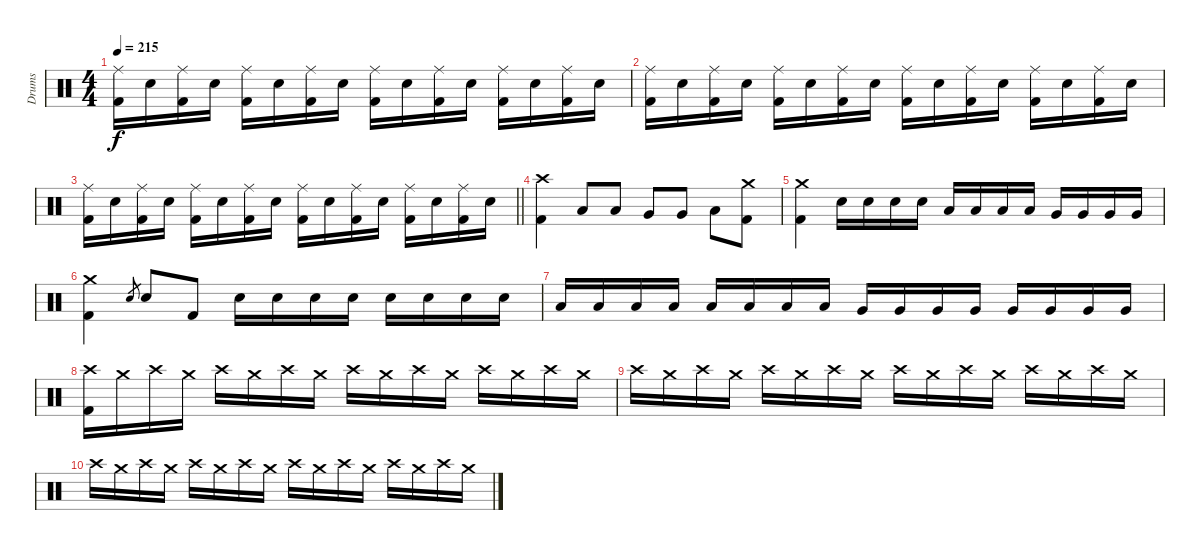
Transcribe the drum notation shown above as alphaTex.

\track ("Drums" "Drums") {instrument percussion}
\staff {score}
\articulation defaults
\ts (4 4)
\tempo 215
\clef neutral
\ks c
("Ride (middle)" "Kick (hit) 2").16{dy f} "Electric Snare (hit)".16 ("Ride (middle)" "Kick (hit) 2").16 "Electric Snare (hit)".16 ("Ride (middle)" "Kick (hit) 2").16 "Electric Snare (hit)".16 ("Ride (middle)" "Kick (hit) 2").16 "Electric Snare (hit)".16 ("Ride (middle)" "Kick (hit) 2").16 "Electric Snare (hit)".16 ("Ride (middle)" "Kick (hit) 2").16 "Electric Snare (hit)".16 ("Ride (middle)" "Kick (hit) 2").16 "Electric Snare (hit)".16 ("Ride (middle)" "Kick (hit) 2").16 "Electric Snare (hit)".16 |
("Ride (middle)" "Kick (hit) 2").16 "Electric Snare (hit)".16 ("Ride (middle)" "Kick (hit) 2").16 "Electric Snare (hit)".16 ("Ride (middle)" "Kick (hit) 2").16 "Electric Snare (hit)".16 ("Ride (middle)" "Kick (hit) 2").16 "Electric Snare (hit)".16 ("Ride (middle)" "Kick (hit) 2").16 "Electric Snare (hit)".16 ("Ride (middle)" "Kick (hit) 2").16 "Electric Snare (hit)".16 ("Ride (middle)" "Kick (hit) 2").16 "Electric Snare (hit)".16 ("Ride (middle)" "Kick (hit) 2").16 "Electric Snare (hit)".16 |
\barLineRight lightlight
("Ride (middle)" "Kick (hit) 2").16 "Electric Snare (hit)".16 ("Ride (middle)" "Kick (hit) 2").16 "Electric Snare (hit)".16 ("Ride (middle)" "Kick (hit) 2").16 "Electric Snare (hit)".16 ("Ride (middle)" "Kick (hit) 2").16 "Electric Snare (hit)".16 ("Ride (middle)" "Kick (hit) 2").16 "Electric Snare (hit)".16 ("Ride (middle)" "Kick (hit) 2").16 "Electric Snare (hit)".16 ("Ride (middle)" "Kick (hit) 2").16 "Electric Snare (hit)".16 ("Ride (middle)" "Kick (hit) 2").16 "Electric Snare (hit)".16 |
("Crash high (hit)" "Kick (hit) 2").4 "Low Tom (hit)".8 "Low Tom (hit)".8 "Very Low Tom (hit)".8 "Very Low Tom (hit)".8 "Low Floor Tom (hit)".8 ("Crash medium (hit)" "Kick (hit) 2").8 |
("Crash medium (hit)" "Kick (hit) 2").4 "Electric Snare (hit)".16 "Electric Snare (hit)".16 "Electric Snare (hit)".16 "Electric Snare (hit)".16 "Low Tom (hit)".16 "Low Tom (hit)".16 "Low Tom (hit)".16 "Low Tom (hit)".16 "Very Low Tom (hit)".16 "Very Low Tom (hit)".16 "Very Low Tom (hit)".16 "Very Low Tom (hit)".16 |
("Crash medium (hit)" "Kick (hit) 2").4 "Electric Snare (hit)".8{gr} "Electric Snare (hit)".8 "Kick (hit) 2".8 "Electric Snare (hit)".16 "Electric Snare (hit)".16 "Electric Snare (hit)".16 "Electric Snare (hit)".16 "Electric Snare (hit)".16 "Electric Snare (hit)".16 "Electric Snare (hit)".16 "Electric Snare (hit)".16 |
"Low Tom (hit)".16 "Low Tom (hit)".16 "Low Tom (hit)".16 "Low Tom (hit)".16 "Low Tom (hit)".16 "Low Tom (hit)".16 "Low Tom (hit)".16 "Low Tom (hit)".16 "Very Low Tom (hit)".16 "Very Low Tom (hit)".16 "Very Low Tom (hit)".16 "Very Low Tom (hit)".16 "Very Low Tom (hit)".16 "Very Low Tom (hit)".16 "Very Low Tom (hit)".16 "Very Low Tom (hit)".16 |
("Crash high (hit)" "Kick (hit) 2").16{volume 0} "Crash medium (hit)".16 "Crash high (hit)".16 "Crash medium (hit)".16 "Crash high (hit)".16 "Crash medium (hit)".16 "Crash high (hit)".16 "Crash medium (hit)".16 "Crash high (hit)".16 "Crash medium (hit)".16 "Crash high (hit)".16 "Crash medium (hit)".16 "Crash high (hit)".16 "Crash medium (hit)".16 "Crash high (hit)".16 "Crash medium (hit)".16 |
"Crash high (hit)".16 "Crash medium (hit)".16 "Crash high (hit)".16 "Crash medium (hit)".16 "Crash high (hit)".16 "Crash medium (hit)".16 "Crash high (hit)".16 "Crash medium (hit)".16 "Crash high (hit)".16 "Crash medium (hit)".16 "Crash high (hit)".16 "Crash medium (hit)".16 "Crash high (hit)".16 "Crash medium (hit)".16 "Crash high (hit)".16 "Crash medium (hit)".16 |
"Crash high (hit)".16 "Crash medium (hit)".16 "Crash high (hit)".16 "Crash medium (hit)".16 "Crash high (hit)".16 "Crash medium (hit)".16 "Crash high (hit)".16 "Crash medium (hit)".16 "Crash high (hit)".16 "Crash medium (hit)".16 "Crash high (hit)".16 "Crash medium (hit)".16 "Crash high (hit)".16 "Crash medium (hit)".16 "Crash high (hit)".16 "Crash medium (hit)".16
